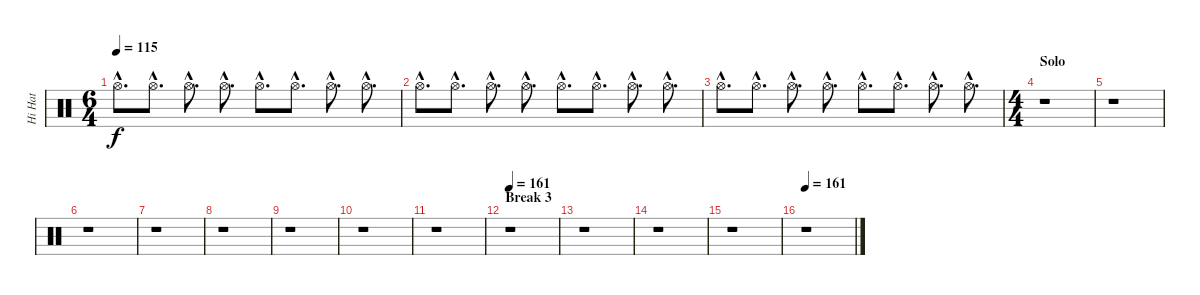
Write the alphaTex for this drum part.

\track ("Hi Hat" "Hi Hat") {instrument percussion}
\staff {score}
\articulation defaults
\ts (6 4)
\tempo 115
\clef neutral
\ks c "Hi-Hat (open)"{hac}.8{d dy f} "Hi-Hat (open)"{hac}.8{d} "Hi-Hat (open)"{hac}.8{d} "Hi-Hat (open)"{hac}.8{d} "Hi-Hat (open)"{hac}.8{d} "Hi-Hat (open)"{hac}.8{d} "Hi-Hat (open)"{hac}.8{d} "Hi-Hat (open)"{hac}.8{d}
|
"Hi-Hat (open)"{hac}.8{d} "Hi-Hat (open)"{hac}.8{d} "Hi-Hat (open)"{hac}.8{d} "Hi-Hat (open)"{hac}.8{d} "Hi-Hat (open)"{hac}.8{d} "Hi-Hat (open)"{hac}.8{d} "Hi-Hat (open)"{hac}.8{d} "Hi-Hat (open)"{hac}.8{d} |
"Hi-Hat (open)"{hac}.8{d} "Hi-Hat (open)"{hac}.8{d} "Hi-Hat (open)"{hac}.8{d} "Hi-Hat (open)"{hac}.8{d} "Hi-Hat (open)"{hac}.8{d} "Hi-Hat (open)"{hac}.8{d} "Hi-Hat (open)"{hac}.8{d} "Hi-Hat (open)"{hac}.8{d} |
\ts (4 4)
\section ("" "Solo")
r.1 |
r.1 |
r.1 |
r.1 |
r.1 |
r.1 |
r.1 |
r.1 |
\section ("" "Break 3")
\tempo 161
r.1 |
r.1 |
r.1 |
r.1 |
\tempo 161
r.1
